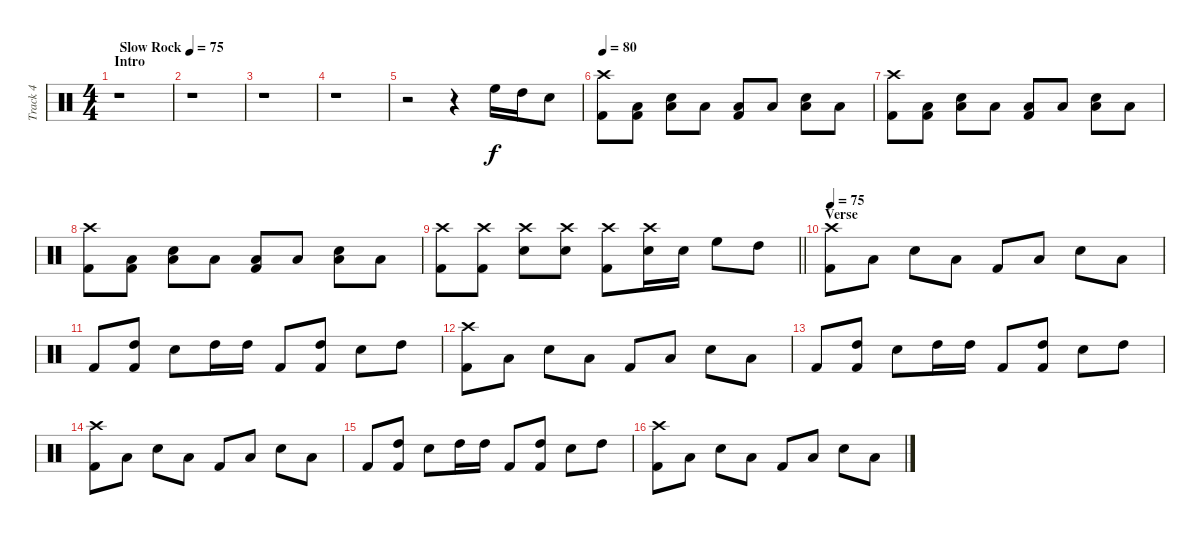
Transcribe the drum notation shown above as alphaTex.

\track ("Track 4" "Track 4") {instrument percussion}
\staff {score}
\articulation defaults
\ts (4 4)
\section ("" "Intro")
\tempo (75 "Slow Rock")
\clef neutral
\ks c
r.1{dy f} |
r.1 |
r.1 |
r.1 |
r.2 r.4 "High Floor Tom (hit)".16 "High Tom (hit)".16 "Snare (hit) 2".8 |
\tempo 80
("Crash high (hit)" "Kick (hit) 2").8 ("Low Tom (hit)" "Kick (hit) 2").8 ("Low Tom (hit)" "Snare (hit) 2").8 "Low Tom (hit)".8 ("Low Tom (hit)" "Kick (hit) 2").8 "Low Tom (hit)".8 ("Low Tom (hit)" "Snare (hit) 2").8 "Low Tom (hit)".8 |
("Crash high (hit)" "Kick (hit) 2").8 ("Low Tom (hit)" "Kick (hit) 2").8 ("Low Tom (hit)" "Snare (hit) 2").8 "Low Tom (hit)".8 ("Low Tom (hit)" "Kick (hit) 2").8 "Low Tom (hit)".8 ("Low Tom (hit)" "Snare (hit) 2").8 "Low Tom (hit)".8 |
("Crash high (hit)" "Kick (hit) 2").8 ("Low Tom (hit)" "Kick (hit) 2").8 ("Low Tom (hit)" "Snare (hit) 2").8 "Low Tom (hit)".8 ("Low Tom (hit)" "Kick (hit) 2").8 "Low Tom (hit)".8 ("Low Tom (hit)" "Snare (hit) 2").8 "Low Tom (hit)".8 |
\barLineRight lightlight
("Crash high (hit)" "Kick (hit) 2").8 ("Crash high (hit)" "Kick (hit) 2").8 ("Crash high (hit)" "Snare (hit) 2").8 ("Crash high (hit)" "Snare (hit) 2").8 ("Crash high (hit)" "Kick (hit) 2").8 ("Crash high (hit)" "Snare (hit) 2").16 "Snare (hit) 2".16 "High Floor Tom (hit)".8 "High Tom (hit)".8 |
\section ("" "Verse")
\tempo 75
("Crash high (hit)" "Kick (hit) 2").8 "Low Tom (hit)".8 "Snare (hit) 2".8 "Low Tom (hit)".8 "Kick (hit) 2".8 "Low Tom (hit)".8 "Snare (hit) 2".8 "Low Tom (hit)".8 |
"Kick (hit) 2".8 ("High Tom (hit)" "Kick (hit) 2").8 "Snare (hit) 2".8 "High Tom (hit)".16 "High Tom (hit)".16 "Kick (hit) 2".8 ("High Tom (hit)" "Kick (hit) 2").8 "Snare (hit) 2".8 "High Tom (hit)".8 |
("Crash high (hit)" "Kick (hit) 2").8 "Low Tom (hit)".8 "Snare (hit) 2".8 "Low Tom (hit)".8 "Kick (hit) 2".8 "Low Tom (hit)".8 "Snare (hit) 2".8 "Low Tom (hit)".8 |
"Kick (hit) 2".8 ("High Tom (hit)" "Kick (hit) 2").8 "Snare (hit) 2".8 "High Tom (hit)".16 "High Tom (hit)".16 "Kick (hit) 2".8 ("High Tom (hit)" "Kick (hit) 2").8 "Snare (hit) 2".8 "High Tom (hit)".8 |
("Crash high (hit)" "Kick (hit) 2").8 "Low Tom (hit)".8 "Snare (hit) 2".8 "Low Tom (hit)".8 "Kick (hit) 2".8 "Low Tom (hit)".8 "Snare (hit) 2".8 "Low Tom (hit)".8 |
"Kick (hit) 2".8 ("High Tom (hit)" "Kick (hit) 2").8 "Snare (hit) 2".8 "High Tom (hit)".16 "High Tom (hit)".16 "Kick (hit) 2".8 ("High Tom (hit)" "Kick (hit) 2").8 "Snare (hit) 2".8 "High Tom (hit)".8 |
("Crash high (hit)" "Kick (hit) 2").8 "Low Tom (hit)".8 "Snare (hit) 2".8 "Low Tom (hit)".8 "Kick (hit) 2".8 "Low Tom (hit)".8 "Snare (hit) 2".8 "Low Tom (hit)".8
